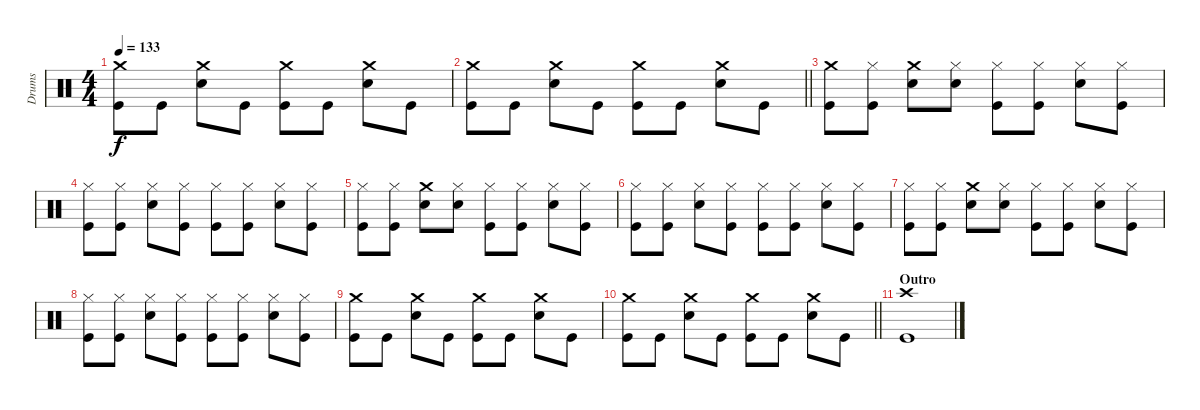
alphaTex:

\track ("Drums" "Drums") {instrument percussion}
\staff {score}
\articulation defaults
\ts (4 4)
\tempo 133
\clef neutral
\ks c
("Crash medium (hit)" "Kick (hit)").8{dy f} "Kick (hit)".8 ("Crash medium (hit)" "Snare (hit) 2").8 "Kick (hit)".8 ("Crash medium (hit)" "Kick (hit)").8 "Kick (hit)".8 ("Crash medium (hit)" "Snare (hit) 2").8 "Kick (hit)".8 |
\barLineRight lightlight
("Crash medium (hit)" "Kick (hit)").8 "Kick (hit)".8 ("Crash medium (hit)" "Snare (hit) 2").8 "Kick (hit)".8 ("Crash medium (hit)" "Kick (hit)").8 "Kick (hit)".8 ("Crash medium (hit)" "Snare (hit) 2").8 "Kick (hit)".8 |
("Crash medium (hit)" "Kick (hit)").8 ("Hi-Hat (closed)" "Kick (hit)").8 ("Crash medium (hit)" "Snare (hit) 2").8 ("Hi-Hat (closed)" "Snare (hit) 2").8 ("Hi-Hat (closed)" "Kick (hit)").8 ("Hi-Hat (closed)" "Kick (hit)").8 ("Hi-Hat (closed)" "Snare (hit) 2").8 ("Hi-Hat (closed)" "Kick (hit)").8 |
("Hi-Hat (closed)" "Kick (hit)").8 ("Hi-Hat (closed)" "Kick (hit)").8 ("Hi-Hat (closed)" "Snare (hit) 2").8 ("Hi-Hat (closed)" "Kick (hit)").8 ("Hi-Hat (closed)" "Kick (hit)").8 ("Hi-Hat (closed)" "Kick (hit)").8 ("Hi-Hat (closed)" "Snare (hit) 2").8 ("Hi-Hat (closed)" "Kick (hit)").8 |
("Hi-Hat (closed)" "Kick (hit)").8 ("Hi-Hat (closed)" "Kick (hit)").8 ("Crash medium (hit)" "Snare (hit) 2").8 ("Hi-Hat (closed)" "Snare (hit) 2").8 ("Hi-Hat (closed)" "Kick (hit)").8 ("Hi-Hat (closed)" "Kick (hit)").8 ("Hi-Hat (closed)" "Snare (hit) 2").8 ("Hi-Hat (closed)" "Kick (hit)").8 |
("Hi-Hat (closed)" "Kick (hit)").8 ("Hi-Hat (closed)" "Kick (hit)").8 ("Hi-Hat (closed)" "Snare (hit) 2").8 ("Hi-Hat (closed)" "Kick (hit)").8 ("Hi-Hat (closed)" "Kick (hit)").8 ("Hi-Hat (closed)" "Kick (hit)").8 ("Hi-Hat (closed)" "Snare (hit) 2").8 ("Hi-Hat (closed)" "Kick (hit)").8 |
("Hi-Hat (closed)" "Kick (hit)").8 ("Hi-Hat (closed)" "Kick (hit)").8 ("Crash medium (hit)" "Snare (hit) 2").8 ("Hi-Hat (closed)" "Snare (hit) 2").8 ("Hi-Hat (closed)" "Kick (hit)").8 ("Hi-Hat (closed)" "Kick (hit)").8 ("Hi-Hat (closed)" "Snare (hit) 2").8 ("Hi-Hat (closed)" "Kick (hit)").8 |
("Hi-Hat (closed)" "Kick (hit)").8 ("Hi-Hat (closed)" "Kick (hit)").8 ("Hi-Hat (closed)" "Snare (hit) 2").8 ("Hi-Hat (closed)" "Kick (hit)").8 ("Hi-Hat (closed)" "Kick (hit)").8 ("Hi-Hat (closed)" "Kick (hit)").8 ("Hi-Hat (closed)" "Snare (hit) 2").8 ("Hi-Hat (closed)" "Kick (hit)").8 |
("Crash medium (hit)" "Kick (hit)").8 "Kick (hit)".8 ("Crash medium (hit)" "Snare (hit) 2").8 "Kick (hit)".8 ("Crash medium (hit)" "Kick (hit)").8 "Kick (hit)".8 ("Crash medium (hit)" "Snare (hit) 2").8 "Kick (hit)".8 |
\barLineRight lightlight
("Crash medium (hit)" "Kick (hit)").8 "Kick (hit)".8 ("Crash medium (hit)" "Snare (hit) 2").8 "Kick (hit)".8 ("Crash medium (hit)" "Kick (hit)").8 "Kick (hit)".8 ("Crash medium (hit)" "Snare (hit) 2").8 "Kick (hit)".8 |
\section ("" "Outro")
("Crash high (hit)" "Kick (hit)").1
